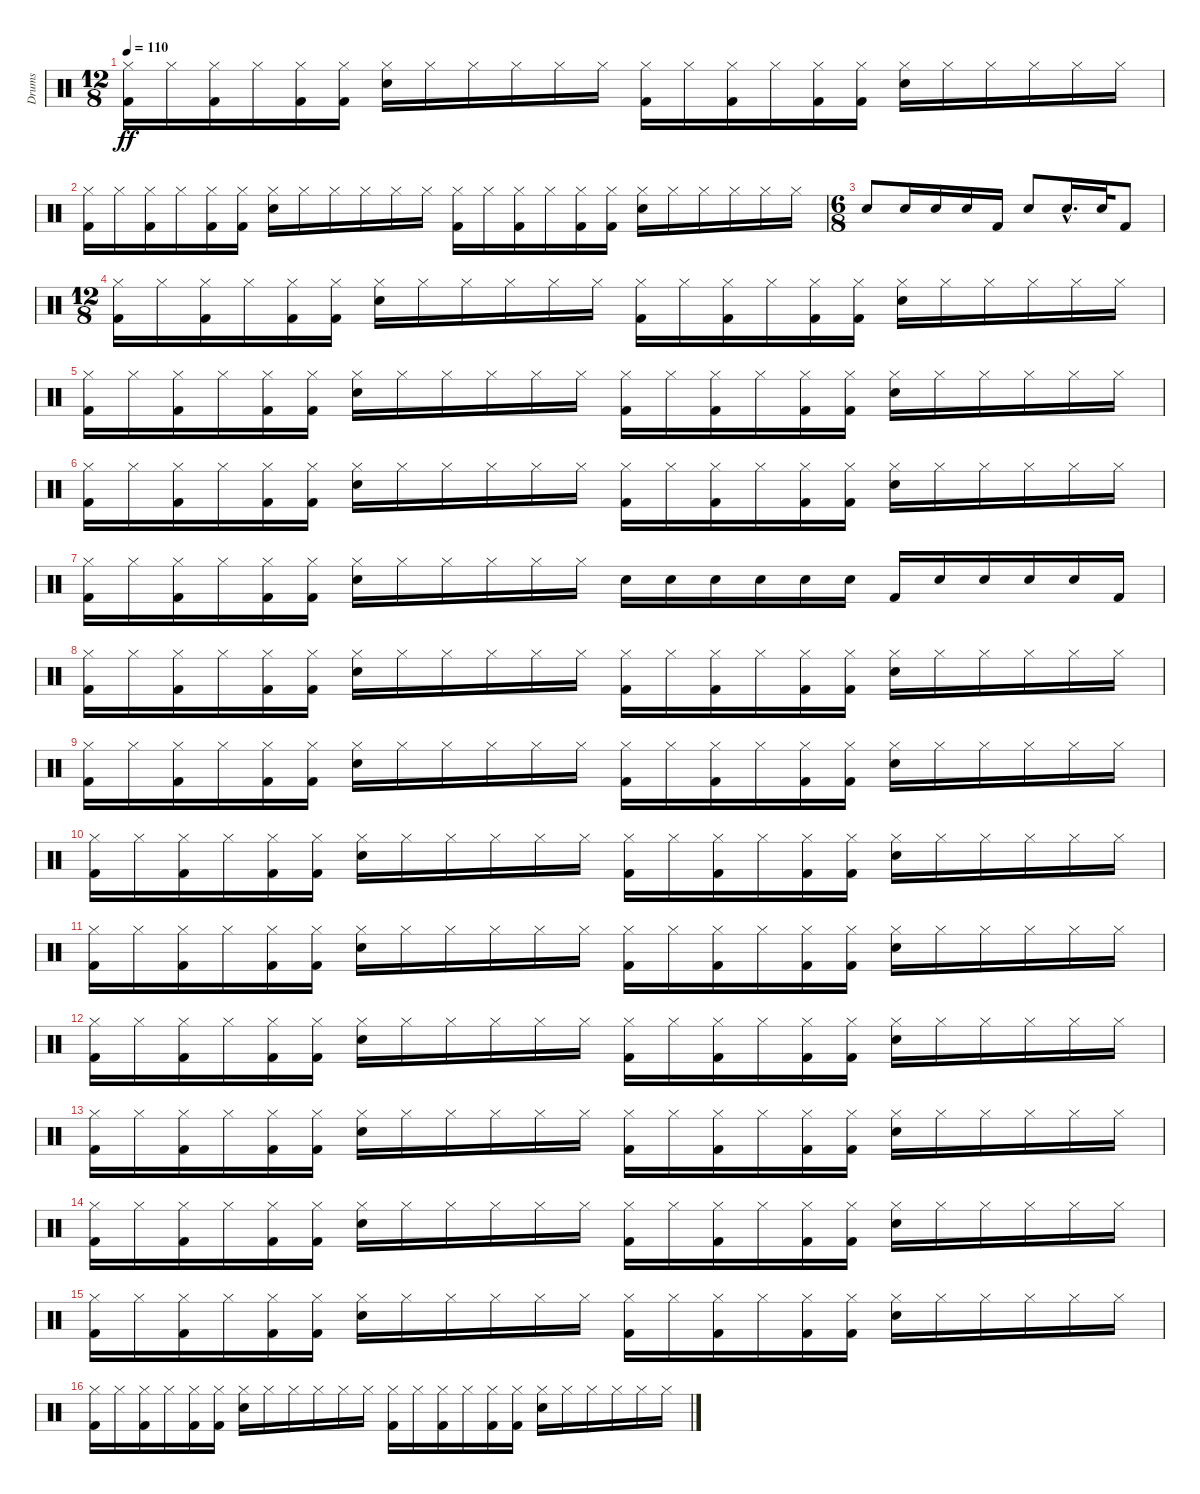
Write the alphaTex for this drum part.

\track ("Drums" "Drums") {instrument percussion}
\staff {score}
\articulation defaults
\ts (12 8)
\tempo 110
\clef neutral
\ks c
("Kick (hit) 2" "Hi-Hat (closed)").16{dy ff} "Hi-Hat (closed)".16 ("Kick (hit) 2" "Hi-Hat (closed)").16 "Hi-Hat (closed)".16 ("Kick (hit) 2" "Hi-Hat (closed)").16 ("Kick (hit) 2" "Hi-Hat (closed)").16 ("Snare (hit) 2" "Hi-Hat (closed)").16 "Hi-Hat (closed)".16 "Hi-Hat (closed)".16 "Hi-Hat (closed)".16 "Hi-Hat (closed)".16 "Hi-Hat (closed)".16 ("Kick (hit) 2" "Hi-Hat (closed)").16 "Hi-Hat (closed)".16 ("Kick (hit) 2" "Hi-Hat (closed)").16 "Hi-Hat (closed)".16 ("Kick (hit) 2" "Hi-Hat (closed)").16 ("Kick (hit) 2" "Hi-Hat (closed)").16 ("Snare (hit) 2" "Hi-Hat (closed)").16 "Hi-Hat (closed)".16 "Hi-Hat (closed)".16 "Hi-Hat (closed)".16 "Hi-Hat (closed)".16 "Hi-Hat (closed)".16 |
("Kick (hit) 2" "Hi-Hat (closed)").16 "Hi-Hat (closed)".16 ("Kick (hit) 2" "Hi-Hat (closed)").16 "Hi-Hat (closed)".16 ("Kick (hit) 2" "Hi-Hat (closed)").16 ("Kick (hit) 2" "Hi-Hat (closed)").16 ("Snare (hit) 2" "Hi-Hat (closed)").16 "Hi-Hat (closed)".16 "Hi-Hat (closed)".16 "Hi-Hat (closed)".16 "Hi-Hat (closed)".16 "Hi-Hat (closed)".16 ("Kick (hit) 2" "Hi-Hat (closed)").16 "Hi-Hat (closed)".16 ("Kick (hit) 2" "Hi-Hat (closed)").16 "Hi-Hat (closed)".16 ("Kick (hit) 2" "Hi-Hat (closed)").16 ("Kick (hit) 2" "Hi-Hat (closed)").16 ("Snare (hit) 2" "Hi-Hat (closed)").16 "Hi-Hat (closed)".16 "Hi-Hat (closed)".16 "Hi-Hat (closed)".16 "Hi-Hat (closed)".16 "Hi-Hat (closed)".16 |
\ts (6 8)
"Snare (hit) 2".8 "Snare (hit) 2".16 "Snare (hit) 2".16 "Snare (hit) 2".16 "Kick (hit) 2".16 "Snare (hit) 2".8 "Snare (hit) 2"{hac}.16{d} "Snare (hit) 2".32 "Kick (hit) 2".8 |
\ts (12 8)
("Kick (hit) 2" "Hi-Hat (closed)").16 "Hi-Hat (closed)".16 ("Kick (hit) 2" "Hi-Hat (closed)").16 "Hi-Hat (closed)".16 ("Kick (hit) 2" "Hi-Hat (closed)").16 ("Kick (hit) 2" "Hi-Hat (closed)").16 ("Snare (hit) 2" "Hi-Hat (closed)").16 "Hi-Hat (closed)".16 "Hi-Hat (closed)".16 "Hi-Hat (closed)".16 "Hi-Hat (closed)".16 "Hi-Hat (closed)".16 ("Kick (hit) 2" "Hi-Hat (closed)").16 "Hi-Hat (closed)".16 ("Kick (hit) 2" "Hi-Hat (closed)").16 "Hi-Hat (closed)".16 ("Kick (hit) 2" "Hi-Hat (closed)").16 ("Kick (hit) 2" "Hi-Hat (closed)").16 ("Snare (hit) 2" "Hi-Hat (closed)").16 "Hi-Hat (closed)".16 "Hi-Hat (closed)".16 "Hi-Hat (closed)".16 "Hi-Hat (closed)".16 "Hi-Hat (closed)".16 |
("Kick (hit) 2" "Hi-Hat (closed)").16 "Hi-Hat (closed)".16 ("Kick (hit) 2" "Hi-Hat (closed)").16 "Hi-Hat (closed)".16 ("Kick (hit) 2" "Hi-Hat (closed)").16 ("Kick (hit) 2" "Hi-Hat (closed)").16 ("Snare (hit) 2" "Hi-Hat (closed)").16 "Hi-Hat (closed)".16 "Hi-Hat (closed)".16 "Hi-Hat (closed)".16 "Hi-Hat (closed)".16 "Hi-Hat (closed)".16 ("Kick (hit) 2" "Hi-Hat (closed)").16 "Hi-Hat (closed)".16 ("Kick (hit) 2" "Hi-Hat (closed)").16 "Hi-Hat (closed)".16 ("Kick (hit) 2" "Hi-Hat (closed)").16 ("Kick (hit) 2" "Hi-Hat (closed)").16 ("Snare (hit) 2" "Hi-Hat (closed)").16 "Hi-Hat (closed)".16 "Hi-Hat (closed)".16 "Hi-Hat (closed)".16 "Hi-Hat (closed)".16 "Hi-Hat (closed)".16 |
("Kick (hit) 2" "Hi-Hat (closed)").16 "Hi-Hat (closed)".16 ("Kick (hit) 2" "Hi-Hat (closed)").16 "Hi-Hat (closed)".16 ("Kick (hit) 2" "Hi-Hat (closed)").16 ("Kick (hit) 2" "Hi-Hat (closed)").16 ("Snare (hit) 2" "Hi-Hat (closed)").16 "Hi-Hat (closed)".16 "Hi-Hat (closed)".16 "Hi-Hat (closed)".16 "Hi-Hat (closed)".16 "Hi-Hat (closed)".16 ("Kick (hit) 2" "Hi-Hat (closed)").16 "Hi-Hat (closed)".16 ("Kick (hit) 2" "Hi-Hat (closed)").16 "Hi-Hat (closed)".16 ("Kick (hit) 2" "Hi-Hat (closed)").16 ("Kick (hit) 2" "Hi-Hat (closed)").16 ("Snare (hit) 2" "Hi-Hat (closed)").16 "Hi-Hat (closed)".16 "Hi-Hat (closed)".16 "Hi-Hat (closed)".16 "Hi-Hat (closed)".16 "Hi-Hat (closed)".16 |
("Kick (hit) 2" "Hi-Hat (closed)").16 "Hi-Hat (closed)".16 ("Kick (hit) 2" "Hi-Hat (closed)").16 "Hi-Hat (closed)".16 ("Kick (hit) 2" "Hi-Hat (closed)").16 ("Kick (hit) 2" "Hi-Hat (closed)").16 ("Snare (hit) 2" "Hi-Hat (closed)").16 "Hi-Hat (closed)".16 "Hi-Hat (closed)".16 "Hi-Hat (closed)".16 "Hi-Hat (closed)".16 "Hi-Hat (closed)".16 "Snare (hit) 2".16 "Snare (hit) 2".16 "Snare (hit) 2".16 "Snare (hit) 2".16 "Snare (hit) 2".16 "Snare (hit) 2".16 "Kick (hit) 2".16 "Snare (hit) 2".16 "Snare (hit) 2".16 "Snare (hit) 2".16 "Snare (hit) 2".16 "Kick (hit) 2".16 |
("Kick (hit) 2" "Hi-Hat (closed)").16 "Hi-Hat (closed)".16 ("Kick (hit) 2" "Hi-Hat (closed)").16 "Hi-Hat (closed)".16 ("Kick (hit) 2" "Hi-Hat (closed)").16 ("Kick (hit) 2" "Hi-Hat (closed)").16 ("Snare (hit) 2" "Hi-Hat (closed)").16 "Hi-Hat (closed)".16 "Hi-Hat (closed)".16 "Hi-Hat (closed)".16 "Hi-Hat (closed)".16 "Hi-Hat (closed)".16 ("Kick (hit) 2" "Hi-Hat (closed)").16 "Hi-Hat (closed)".16 ("Kick (hit) 2" "Hi-Hat (closed)").16 "Hi-Hat (closed)".16 ("Kick (hit) 2" "Hi-Hat (closed)").16 ("Kick (hit) 2" "Hi-Hat (closed)").16 ("Snare (hit) 2" "Hi-Hat (closed)").16 "Hi-Hat (closed)".16 "Hi-Hat (closed)".16 "Hi-Hat (closed)".16 "Hi-Hat (closed)".16 "Hi-Hat (closed)".16 |
("Kick (hit) 2" "Hi-Hat (closed)").16 "Hi-Hat (closed)".16 ("Kick (hit) 2" "Hi-Hat (closed)").16 "Hi-Hat (closed)".16 ("Kick (hit) 2" "Hi-Hat (closed)").16 ("Kick (hit) 2" "Hi-Hat (closed)").16 ("Snare (hit) 2" "Hi-Hat (closed)").16 "Hi-Hat (closed)".16 "Hi-Hat (closed)".16 "Hi-Hat (closed)".16 "Hi-Hat (closed)".16 "Hi-Hat (closed)".16 ("Kick (hit) 2" "Hi-Hat (closed)").16 "Hi-Hat (closed)".16 ("Kick (hit) 2" "Hi-Hat (closed)").16 "Hi-Hat (closed)".16 ("Kick (hit) 2" "Hi-Hat (closed)").16 ("Kick (hit) 2" "Hi-Hat (closed)").16 ("Snare (hit) 2" "Hi-Hat (closed)").16 "Hi-Hat (closed)".16 "Hi-Hat (closed)".16 "Hi-Hat (closed)".16 "Hi-Hat (closed)".16 "Hi-Hat (closed)".16 |
("Kick (hit) 2" "Hi-Hat (closed)").16 "Hi-Hat (closed)".16 ("Kick (hit) 2" "Hi-Hat (closed)").16 "Hi-Hat (closed)".16 ("Kick (hit) 2" "Hi-Hat (closed)").16 ("Kick (hit) 2" "Hi-Hat (closed)").16 ("Snare (hit) 2" "Hi-Hat (closed)").16 "Hi-Hat (closed)".16 "Hi-Hat (closed)".16 "Hi-Hat (closed)".16 "Hi-Hat (closed)".16 "Hi-Hat (closed)".16 ("Kick (hit) 2" "Hi-Hat (closed)").16 "Hi-Hat (closed)".16 ("Kick (hit) 2" "Hi-Hat (closed)").16 "Hi-Hat (closed)".16 ("Kick (hit) 2" "Hi-Hat (closed)").16 ("Kick (hit) 2" "Hi-Hat (closed)").16 ("Snare (hit) 2" "Hi-Hat (closed)").16 "Hi-Hat (closed)".16 "Hi-Hat (closed)".16 "Hi-Hat (closed)".16 "Hi-Hat (closed)".16 "Hi-Hat (closed)".16 |
("Kick (hit) 2" "Hi-Hat (closed)").16 "Hi-Hat (closed)".16 ("Kick (hit) 2" "Hi-Hat (closed)").16 "Hi-Hat (closed)".16 ("Kick (hit) 2" "Hi-Hat (closed)").16 ("Kick (hit) 2" "Hi-Hat (closed)").16 ("Snare (hit) 2" "Hi-Hat (closed)").16 "Hi-Hat (closed)".16 "Hi-Hat (closed)".16 "Hi-Hat (closed)".16 "Hi-Hat (closed)".16 "Hi-Hat (closed)".16 ("Kick (hit) 2" "Hi-Hat (closed)").16 "Hi-Hat (closed)".16 ("Kick (hit) 2" "Hi-Hat (closed)").16 "Hi-Hat (closed)".16 ("Kick (hit) 2" "Hi-Hat (closed)").16 ("Kick (hit) 2" "Hi-Hat (closed)").16 ("Snare (hit) 2" "Hi-Hat (closed)").16 "Hi-Hat (closed)".16 "Hi-Hat (closed)".16 "Hi-Hat (closed)".16 "Hi-Hat (closed)".16 "Hi-Hat (closed)".16 |
("Kick (hit) 2" "Hi-Hat (closed)").16 "Hi-Hat (closed)".16 ("Kick (hit) 2" "Hi-Hat (closed)").16 "Hi-Hat (closed)".16 ("Kick (hit) 2" "Hi-Hat (closed)").16 ("Kick (hit) 2" "Hi-Hat (closed)").16 ("Snare (hit) 2" "Hi-Hat (closed)").16 "Hi-Hat (closed)".16 "Hi-Hat (closed)".16 "Hi-Hat (closed)".16 "Hi-Hat (closed)".16 "Hi-Hat (closed)".16 ("Kick (hit) 2" "Hi-Hat (closed)").16 "Hi-Hat (closed)".16 ("Kick (hit) 2" "Hi-Hat (closed)").16 "Hi-Hat (closed)".16 ("Kick (hit) 2" "Hi-Hat (closed)").16 ("Kick (hit) 2" "Hi-Hat (closed)").16 ("Snare (hit) 2" "Hi-Hat (closed)").16 "Hi-Hat (closed)".16 "Hi-Hat (closed)".16 "Hi-Hat (closed)".16 "Hi-Hat (closed)".16 "Hi-Hat (closed)".16 |
("Kick (hit) 2" "Hi-Hat (closed)").16 "Hi-Hat (closed)".16 ("Kick (hit) 2" "Hi-Hat (closed)").16 "Hi-Hat (closed)".16 ("Kick (hit) 2" "Hi-Hat (closed)").16 ("Kick (hit) 2" "Hi-Hat (closed)").16 ("Snare (hit) 2" "Hi-Hat (closed)").16 "Hi-Hat (closed)".16 "Hi-Hat (closed)".16 "Hi-Hat (closed)".16 "Hi-Hat (closed)".16 "Hi-Hat (closed)".16 ("Kick (hit) 2" "Hi-Hat (closed)").16 "Hi-Hat (closed)".16 ("Kick (hit) 2" "Hi-Hat (closed)").16 "Hi-Hat (closed)".16 ("Kick (hit) 2" "Hi-Hat (closed)").16 ("Kick (hit) 2" "Hi-Hat (closed)").16 ("Snare (hit) 2" "Hi-Hat (closed)").16 "Hi-Hat (closed)".16 "Hi-Hat (closed)".16 "Hi-Hat (closed)".16 "Hi-Hat (closed)".16 "Hi-Hat (closed)".16 |
("Kick (hit) 2" "Hi-Hat (closed)").16 "Hi-Hat (closed)".16 ("Kick (hit) 2" "Hi-Hat (closed)").16 "Hi-Hat (closed)".16 ("Kick (hit) 2" "Hi-Hat (closed)").16 ("Kick (hit) 2" "Hi-Hat (closed)").16 ("Snare (hit) 2" "Hi-Hat (closed)").16 "Hi-Hat (closed)".16 "Hi-Hat (closed)".16 "Hi-Hat (closed)".16 "Hi-Hat (closed)".16 "Hi-Hat (closed)".16 ("Kick (hit) 2" "Hi-Hat (closed)").16 "Hi-Hat (closed)".16 ("Kick (hit) 2" "Hi-Hat (closed)").16 "Hi-Hat (closed)".16 ("Kick (hit) 2" "Hi-Hat (closed)").16 ("Kick (hit) 2" "Hi-Hat (closed)").16 ("Snare (hit) 2" "Hi-Hat (closed)").16 "Hi-Hat (closed)".16 "Hi-Hat (closed)".16 "Hi-Hat (closed)".16 "Hi-Hat (closed)".16 "Hi-Hat (closed)".16 |
("Kick (hit) 2" "Hi-Hat (closed)").16 "Hi-Hat (closed)".16 ("Kick (hit) 2" "Hi-Hat (closed)").16 "Hi-Hat (closed)".16 ("Kick (hit) 2" "Hi-Hat (closed)").16 ("Kick (hit) 2" "Hi-Hat (closed)").16 ("Snare (hit) 2" "Hi-Hat (closed)").16 "Hi-Hat (closed)".16 "Hi-Hat (closed)".16 "Hi-Hat (closed)".16 "Hi-Hat (closed)".16 "Hi-Hat (closed)".16 ("Kick (hit) 2" "Hi-Hat (closed)").16 "Hi-Hat (closed)".16 ("Kick (hit) 2" "Hi-Hat (closed)").16 "Hi-Hat (closed)".16 ("Kick (hit) 2" "Hi-Hat (closed)").16 ("Kick (hit) 2" "Hi-Hat (closed)").16 ("Snare (hit) 2" "Hi-Hat (closed)").16 "Hi-Hat (closed)".16 "Hi-Hat (closed)".16 "Hi-Hat (closed)".16 "Hi-Hat (closed)".16 "Hi-Hat (closed)".16 |
("Kick (hit) 2" "Hi-Hat (closed)").16 "Hi-Hat (closed)".16 ("Kick (hit) 2" "Hi-Hat (closed)").16 "Hi-Hat (closed)".16 ("Kick (hit) 2" "Hi-Hat (closed)").16 ("Kick (hit) 2" "Hi-Hat (closed)").16 ("Snare (hit) 2" "Hi-Hat (closed)").16 "Hi-Hat (closed)".16 "Hi-Hat (closed)".16 "Hi-Hat (closed)".16 "Hi-Hat (closed)".16 "Hi-Hat (closed)".16 ("Kick (hit) 2" "Hi-Hat (closed)").16 "Hi-Hat (closed)".16 ("Kick (hit) 2" "Hi-Hat (closed)").16 "Hi-Hat (closed)".16 ("Kick (hit) 2" "Hi-Hat (closed)").16 ("Kick (hit) 2" "Hi-Hat (closed)").16 ("Snare (hit) 2" "Hi-Hat (closed)").16 "Hi-Hat (closed)".16 "Hi-Hat (closed)".16 "Hi-Hat (closed)".16 "Hi-Hat (closed)".16 "Hi-Hat (closed)".16
